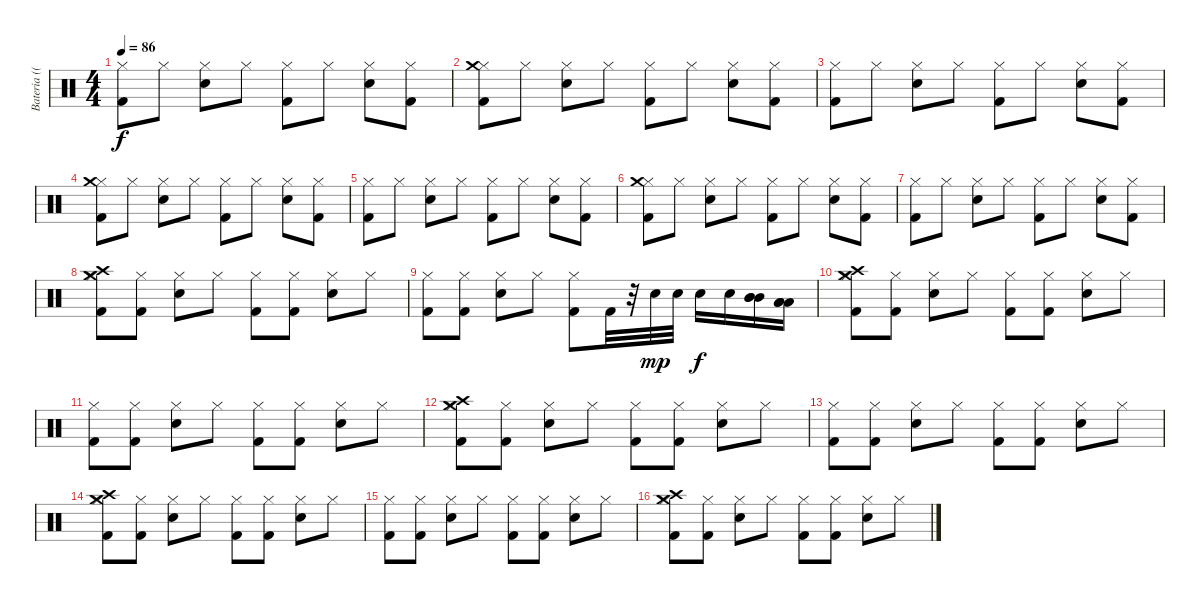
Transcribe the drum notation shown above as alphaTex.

\track ("Bateria ((Matt))" "Bateria ((") {instrument percussion}
\staff {score}
\articulation defaults
\ts (4 4)
\tempo 86
\clef neutral
\ks c
("Hi-Hat (closed)" "Kick (hit) 2").8{dy f} "Hi-Hat (closed)".8 ("Hi-Hat (closed)" "Electric Snare (hit)").8 "Hi-Hat (closed)".8 ("Hi-Hat (closed)" "Kick (hit) 2").8 "Hi-Hat (closed)".8 ("Hi-Hat (closed)" "Electric Snare (hit)").8 ("Hi-Hat (closed)" "Kick (hit) 2").8 |
("Hi-Hat (closed)" "Crash medium (hit)" "Kick (hit) 2").8 "Hi-Hat (closed)".8 ("Hi-Hat (closed)" "Electric Snare (hit)").8 "Hi-Hat (closed)".8 ("Hi-Hat (closed)" "Kick (hit) 2").8 "Hi-Hat (closed)".8 ("Hi-Hat (closed)" "Electric Snare (hit)").8 ("Hi-Hat (closed)" "Kick (hit) 2").8 |
("Hi-Hat (closed)" "Kick (hit) 2").8 "Hi-Hat (closed)".8 ("Hi-Hat (closed)" "Electric Snare (hit)").8 "Hi-Hat (closed)".8 ("Hi-Hat (closed)" "Kick (hit) 2").8 "Hi-Hat (closed)".8 ("Hi-Hat (closed)" "Electric Snare (hit)").8 ("Hi-Hat (closed)" "Kick (hit) 2").8 |
("Hi-Hat (closed)" "Crash medium (hit)" "Kick (hit) 2").8 "Hi-Hat (closed)".8 ("Hi-Hat (closed)" "Electric Snare (hit)").8 "Hi-Hat (closed)".8 ("Hi-Hat (closed)" "Kick (hit) 2").8 "Hi-Hat (closed)".8 ("Hi-Hat (closed)" "Electric Snare (hit)").8 ("Hi-Hat (closed)" "Kick (hit) 2").8 |
("Hi-Hat (closed)" "Kick (hit) 2").8 "Hi-Hat (closed)".8 ("Hi-Hat (closed)" "Electric Snare (hit)").8 "Hi-Hat (closed)".8 ("Hi-Hat (closed)" "Kick (hit) 2").8 "Hi-Hat (closed)".8 ("Hi-Hat (closed)" "Electric Snare (hit)").8 ("Hi-Hat (closed)" "Kick (hit) 2").8 |
("Hi-Hat (closed)" "Crash medium (hit)" "Kick (hit) 2").8 "Hi-Hat (closed)".8 ("Hi-Hat (closed)" "Electric Snare (hit)").8 "Hi-Hat (closed)".8 ("Hi-Hat (closed)" "Kick (hit) 2").8 "Hi-Hat (closed)".8 ("Hi-Hat (closed)" "Electric Snare (hit)").8 ("Hi-Hat (closed)" "Kick (hit) 2").8 |
("Hi-Hat (closed)" "Kick (hit) 2").8 "Hi-Hat (closed)".8 ("Hi-Hat (closed)" "Electric Snare (hit)").8 "Hi-Hat (closed)".8 ("Hi-Hat (closed)" "Kick (hit) 2").8 "Hi-Hat (closed)".8 ("Hi-Hat (closed)" "Electric Snare (hit)").8 ("Hi-Hat (closed)" "Kick (hit) 2").8 |
("Hi-Hat (closed)" "Crash high (hit)" "Crash medium (hit)" "Kick (hit) 2").8 ("Hi-Hat (closed)" "Kick (hit) 2").8 ("Hi-Hat (closed)" "Electric Snare (hit)").8 "Hi-Hat (closed)".8 ("Hi-Hat (closed)" "Kick (hit) 2").8 ("Hi-Hat (closed)" "Kick (hit) 2").8 ("Hi-Hat (closed)" "Electric Snare (hit)").8 "Hi-Hat (closed)".8 |
("Hi-Hat (closed)" "Kick (hit) 2").8 ("Hi-Hat (closed)" "Kick (hit) 2").8 ("Hi-Hat (closed)" "Electric Snare (hit)").8 "Hi-Hat (closed)".8 ("Hi-Hat (closed)" "Kick (hit) 2").8 "Kick (hit) 2".32 r.32 "Electric Snare (hit)".32{dy mp} "Electric Snare (hit)".32 "Electric Snare (hit)".16{dy f} "Electric Snare (hit)".16 ("Mid Tom (hit)" "Mid Tom (hit)" "Mid Tom (hit)").16 ("Low Tom (hit)" "Low Tom (hit)" "Low Tom (hit)").16 |
("Hi-Hat (closed)" "Crash high (hit)" "Crash medium (hit)" "Kick (hit) 2").8 ("Hi-Hat (closed)" "Kick (hit) 2").8 ("Hi-Hat (closed)" "Electric Snare (hit)").8 "Hi-Hat (closed)".8 ("Hi-Hat (closed)" "Kick (hit) 2").8 ("Hi-Hat (closed)" "Kick (hit) 2").8 ("Hi-Hat (closed)" "Electric Snare (hit)").8 "Hi-Hat (closed)".8 |
("Hi-Hat (closed)" "Kick (hit) 2").8 ("Hi-Hat (closed)" "Kick (hit) 2").8 ("Hi-Hat (closed)" "Electric Snare (hit)").8 "Hi-Hat (closed)".8 ("Hi-Hat (closed)" "Kick (hit) 2").8 ("Hi-Hat (closed)" "Kick (hit) 2").8 ("Hi-Hat (closed)" "Electric Snare (hit)").8 "Hi-Hat (closed)".8 |
("Hi-Hat (closed)" "Crash high (hit)" "Crash medium (hit)" "Kick (hit) 2").8 ("Hi-Hat (closed)" "Kick (hit) 2").8 ("Hi-Hat (closed)" "Electric Snare (hit)").8 "Hi-Hat (closed)".8 ("Hi-Hat (closed)" "Kick (hit) 2").8 ("Hi-Hat (closed)" "Kick (hit) 2").8 ("Hi-Hat (closed)" "Electric Snare (hit)").8 "Hi-Hat (closed)".8 |
("Hi-Hat (closed)" "Kick (hit) 2").8 ("Hi-Hat (closed)" "Kick (hit) 2").8 ("Hi-Hat (closed)" "Electric Snare (hit)").8 "Hi-Hat (closed)".8 ("Hi-Hat (closed)" "Kick (hit) 2").8 ("Hi-Hat (closed)" "Kick (hit) 2").8 ("Hi-Hat (closed)" "Electric Snare (hit)").8 "Hi-Hat (closed)".8 |
("Hi-Hat (closed)" "Crash high (hit)" "Crash medium (hit)" "Kick (hit) 2").8 ("Hi-Hat (closed)" "Kick (hit) 2").8 ("Hi-Hat (closed)" "Electric Snare (hit)").8 "Hi-Hat (closed)".8 ("Hi-Hat (closed)" "Kick (hit) 2").8 ("Hi-Hat (closed)" "Kick (hit) 2").8 ("Hi-Hat (closed)" "Electric Snare (hit)").8 "Hi-Hat (closed)".8 |
("Hi-Hat (closed)" "Kick (hit) 2").8 ("Hi-Hat (closed)" "Kick (hit) 2").8 ("Hi-Hat (closed)" "Electric Snare (hit)").8 "Hi-Hat (closed)".8 ("Hi-Hat (closed)" "Kick (hit) 2").8 ("Hi-Hat (closed)" "Kick (hit) 2").8 ("Hi-Hat (closed)" "Electric Snare (hit)").8 "Hi-Hat (closed)".8 |
("Hi-Hat (closed)" "Crash high (hit)" "Crash medium (hit)" "Kick (hit) 2").8 ("Hi-Hat (closed)" "Kick (hit) 2").8 ("Hi-Hat (closed)" "Electric Snare (hit)").8 "Hi-Hat (closed)".8 ("Hi-Hat (closed)" "Kick (hit) 2").8 ("Hi-Hat (closed)" "Kick (hit) 2").8 ("Hi-Hat (closed)" "Electric Snare (hit)").8 "Hi-Hat (closed)".8
